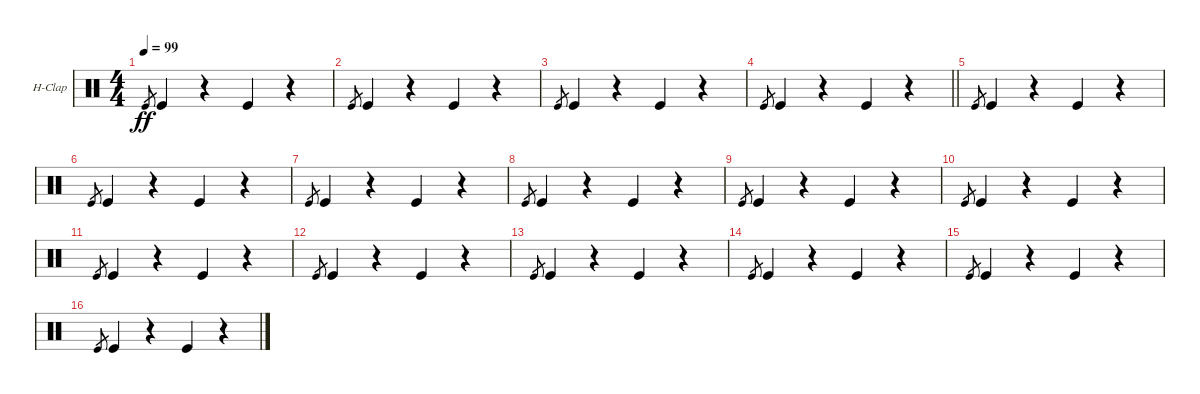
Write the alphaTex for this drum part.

\bracketExtendMode groupsimilarinstruments
\firstSystemTrackNameOrientation horizontal
\otherSystemsTrackNameOrientation horizontal
\track ("Hand Clap" "H-Clap") {instrument percussion}
\staff {score}
\articulation defaults
\ts (4 4)
\tempo 99
\clef neutral
\ks c "Kick (hit)".8{gr dy ff} "Kick (hit)".4
r.4 "Kick (hit)".4 r.4 |
"Kick (hit)".8{gr} "Kick (hit)".4 r.4 "Kick (hit)".4 r.4 |
"Kick (hit)".8{gr} "Kick (hit)".4 r.4 "Kick (hit)".4 r.4 |
\barLineRight lightlight "Kick (hit)".8{gr} "Kick (hit)".4
r.4 "Kick (hit)".4 r.4 |
"Kick (hit)".8{gr} "Kick (hit)".4 r.4 "Kick (hit)".4 r.4 |
"Kick (hit)".8{gr} "Kick (hit)".4 r.4 "Kick (hit)".4 r.4 |
"Kick (hit)".8{gr} "Kick (hit)".4 r.4 "Kick (hit)".4 r.4 |
"Kick (hit)".8{gr} "Kick (hit)".4 r.4 "Kick (hit)".4 r.4 |
"Kick (hit)".8{gr} "Kick (hit)".4 r.4 "Kick (hit)".4 r.4 |
"Kick (hit)".8{gr} "Kick (hit)".4 r.4 "Kick (hit)".4 r.4 |
"Kick (hit)".8{gr} "Kick (hit)".4 r.4 "Kick (hit)".4 r.4 |
"Kick (hit)".8{gr} "Kick (hit)".4 r.4 "Kick (hit)".4 r.4 |
"Kick (hit)".8{gr} "Kick (hit)".4 r.4 "Kick (hit)".4 r.4 |
"Kick (hit)".8{gr} "Kick (hit)".4 r.4 "Kick (hit)".4 r.4 |
"Kick (hit)".8{gr} "Kick (hit)".4 r.4 "Kick (hit)".4 r.4 |
"Kick (hit)".8{gr} "Kick (hit)".4 r.4 "Kick (hit)".4 r.4
